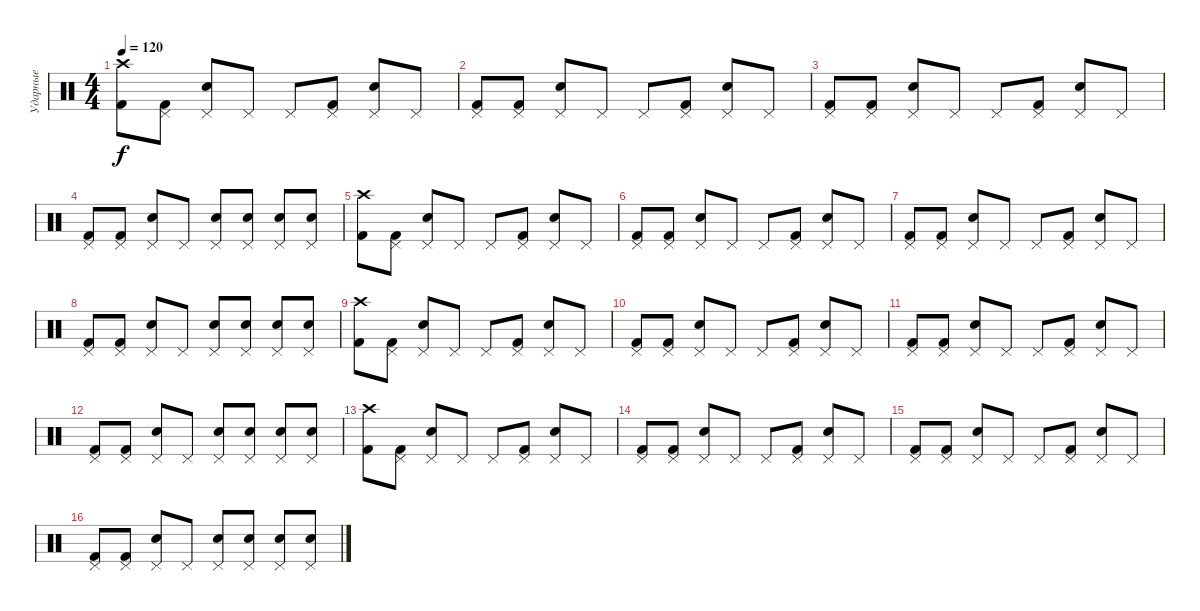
\track ("Ударные" "Ударные") {instrument percussion}
\staff {score}
\articulation defaults
\ts (4 4)
\tempo 120
\clef neutral
\ks c
("Crash high (hit)" "Kick (hit) 2").8{dy f} ("Pedal Hi-Hat (hit)" "Kick (hit) 2").8 ("Pedal Hi-Hat (hit)" "Snare (hit) 2").8 "Pedal Hi-Hat (hit)".8 "Pedal Hi-Hat (hit)".8 ("Pedal Hi-Hat (hit)" "Kick (hit) 2").8 ("Pedal Hi-Hat (hit)" "Snare (hit) 2").8 "Pedal Hi-Hat (hit)".8 |
("Pedal Hi-Hat (hit)" "Kick (hit) 2").8 ("Pedal Hi-Hat (hit)" "Kick (hit) 2").8 ("Pedal Hi-Hat (hit)" "Snare (hit) 2").8 "Pedal Hi-Hat (hit)".8 "Pedal Hi-Hat (hit)".8 ("Pedal Hi-Hat (hit)" "Kick (hit) 2").8 ("Pedal Hi-Hat (hit)" "Snare (hit) 2").8 "Pedal Hi-Hat (hit)".8 |
("Pedal Hi-Hat (hit)" "Kick (hit) 2").8 ("Pedal Hi-Hat (hit)" "Kick (hit) 2").8 ("Pedal Hi-Hat (hit)" "Snare (hit) 2").8 "Pedal Hi-Hat (hit)".8 "Pedal Hi-Hat (hit)".8 ("Pedal Hi-Hat (hit)" "Kick (hit) 2").8 ("Pedal Hi-Hat (hit)" "Snare (hit) 2").8 "Pedal Hi-Hat (hit)".8 |
("Pedal Hi-Hat (hit)" "Kick (hit) 2").8 ("Pedal Hi-Hat (hit)" "Kick (hit) 2").8 ("Pedal Hi-Hat (hit)" "Snare (hit) 2").8 "Pedal Hi-Hat (hit)".8 ("Pedal Hi-Hat (hit)" "Snare (hit) 2").8 ("Pedal Hi-Hat (hit)" "Snare (hit) 2").8 ("Pedal Hi-Hat (hit)" "Snare (hit) 2").8 ("Pedal Hi-Hat (hit)" "Snare (hit) 2").8 |
("Crash high (hit)" "Kick (hit) 2").8 ("Pedal Hi-Hat (hit)" "Kick (hit) 2").8 ("Pedal Hi-Hat (hit)" "Snare (hit) 2").8 "Pedal Hi-Hat (hit)".8 "Pedal Hi-Hat (hit)".8 ("Pedal Hi-Hat (hit)" "Kick (hit) 2").8 ("Pedal Hi-Hat (hit)" "Snare (hit) 2").8 "Pedal Hi-Hat (hit)".8 |
("Pedal Hi-Hat (hit)" "Kick (hit) 2").8 ("Pedal Hi-Hat (hit)" "Kick (hit) 2").8 ("Pedal Hi-Hat (hit)" "Snare (hit) 2").8 "Pedal Hi-Hat (hit)".8 "Pedal Hi-Hat (hit)".8 ("Pedal Hi-Hat (hit)" "Kick (hit) 2").8 ("Pedal Hi-Hat (hit)" "Snare (hit) 2").8 "Pedal Hi-Hat (hit)".8 |
("Pedal Hi-Hat (hit)" "Kick (hit) 2").8 ("Pedal Hi-Hat (hit)" "Kick (hit) 2").8 ("Pedal Hi-Hat (hit)" "Snare (hit) 2").8 "Pedal Hi-Hat (hit)".8 "Pedal Hi-Hat (hit)".8 ("Pedal Hi-Hat (hit)" "Kick (hit) 2").8 ("Pedal Hi-Hat (hit)" "Snare (hit) 2").8 "Pedal Hi-Hat (hit)".8 |
("Pedal Hi-Hat (hit)" "Kick (hit) 2").8 ("Pedal Hi-Hat (hit)" "Kick (hit) 2").8 ("Pedal Hi-Hat (hit)" "Snare (hit) 2").8 "Pedal Hi-Hat (hit)".8 ("Pedal Hi-Hat (hit)" "Snare (hit) 2").8 ("Pedal Hi-Hat (hit)" "Snare (hit) 2").8 ("Pedal Hi-Hat (hit)" "Snare (hit) 2").8 ("Pedal Hi-Hat (hit)" "Snare (hit) 2").8 |
("Crash high (hit)" "Kick (hit) 2").8 ("Pedal Hi-Hat (hit)" "Kick (hit) 2").8 ("Pedal Hi-Hat (hit)" "Snare (hit) 2").8 "Pedal Hi-Hat (hit)".8 "Pedal Hi-Hat (hit)".8 ("Pedal Hi-Hat (hit)" "Kick (hit) 2").8 ("Pedal Hi-Hat (hit)" "Snare (hit) 2").8 "Pedal Hi-Hat (hit)".8 |
("Pedal Hi-Hat (hit)" "Kick (hit) 2").8 ("Pedal Hi-Hat (hit)" "Kick (hit) 2").8 ("Pedal Hi-Hat (hit)" "Snare (hit) 2").8 "Pedal Hi-Hat (hit)".8 "Pedal Hi-Hat (hit)".8 ("Pedal Hi-Hat (hit)" "Kick (hit) 2").8 ("Pedal Hi-Hat (hit)" "Snare (hit) 2").8 "Pedal Hi-Hat (hit)".8 |
("Pedal Hi-Hat (hit)" "Kick (hit) 2").8 ("Pedal Hi-Hat (hit)" "Kick (hit) 2").8 ("Pedal Hi-Hat (hit)" "Snare (hit) 2").8 "Pedal Hi-Hat (hit)".8 "Pedal Hi-Hat (hit)".8 ("Pedal Hi-Hat (hit)" "Kick (hit) 2").8 ("Pedal Hi-Hat (hit)" "Snare (hit) 2").8 "Pedal Hi-Hat (hit)".8 |
("Pedal Hi-Hat (hit)" "Kick (hit) 2").8 ("Pedal Hi-Hat (hit)" "Kick (hit) 2").8 ("Pedal Hi-Hat (hit)" "Snare (hit) 2").8 "Pedal Hi-Hat (hit)".8 ("Pedal Hi-Hat (hit)" "Snare (hit) 2").8 ("Pedal Hi-Hat (hit)" "Snare (hit) 2").8 ("Pedal Hi-Hat (hit)" "Snare (hit) 2").8 ("Pedal Hi-Hat (hit)" "Snare (hit) 2").8 |
("Crash high (hit)" "Kick (hit) 2").8 ("Pedal Hi-Hat (hit)" "Kick (hit) 2").8 ("Pedal Hi-Hat (hit)" "Snare (hit) 2").8 "Pedal Hi-Hat (hit)".8 "Pedal Hi-Hat (hit)".8 ("Pedal Hi-Hat (hit)" "Kick (hit) 2").8 ("Pedal Hi-Hat (hit)" "Snare (hit) 2").8 "Pedal Hi-Hat (hit)".8 |
("Pedal Hi-Hat (hit)" "Kick (hit) 2").8 ("Pedal Hi-Hat (hit)" "Kick (hit) 2").8 ("Pedal Hi-Hat (hit)" "Snare (hit) 2").8 "Pedal Hi-Hat (hit)".8 "Pedal Hi-Hat (hit)".8 ("Pedal Hi-Hat (hit)" "Kick (hit) 2").8 ("Pedal Hi-Hat (hit)" "Snare (hit) 2").8 "Pedal Hi-Hat (hit)".8 |
("Pedal Hi-Hat (hit)" "Kick (hit) 2").8 ("Pedal Hi-Hat (hit)" "Kick (hit) 2").8 ("Pedal Hi-Hat (hit)" "Snare (hit) 2").8 "Pedal Hi-Hat (hit)".8 "Pedal Hi-Hat (hit)".8 ("Pedal Hi-Hat (hit)" "Kick (hit) 2").8 ("Pedal Hi-Hat (hit)" "Snare (hit) 2").8 "Pedal Hi-Hat (hit)".8 |
("Pedal Hi-Hat (hit)" "Kick (hit) 2").8 ("Pedal Hi-Hat (hit)" "Kick (hit) 2").8 ("Pedal Hi-Hat (hit)" "Snare (hit) 2").8 "Pedal Hi-Hat (hit)".8 ("Pedal Hi-Hat (hit)" "Snare (hit) 2").8 ("Pedal Hi-Hat (hit)" "Snare (hit) 2").8 ("Pedal Hi-Hat (hit)" "Snare (hit) 2").8 ("Pedal Hi-Hat (hit)" "Snare (hit) 2").8
